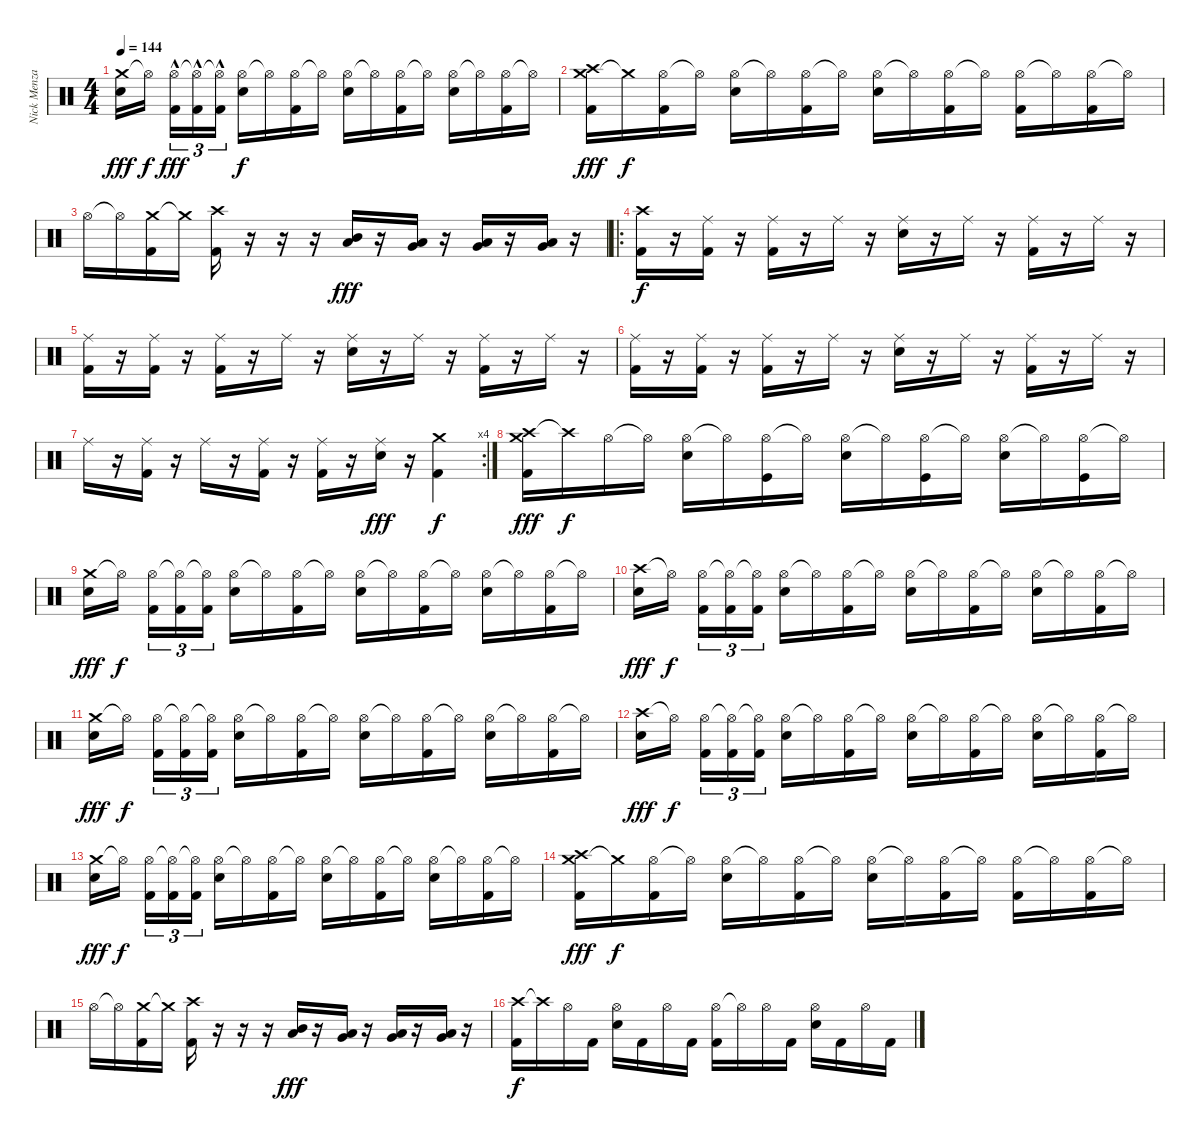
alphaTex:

\track ("Nick Menza" "Nick Menza") {instrument percussion}
\staff {score}
\articulation defaults
\ts (4 4)
\tempo 144
\clef neutral
\ks c
("Crash medium (hit)" "Electric Snare (hit)").16{dy fff} "Hi-Hat (open)"{t}.16{dy f beam splitsecondary} ("Hi-Hat (open)" "Kick (hit) 2"{hac}).16{tu (3 2) dy fff} ("Hi-Hat (open)"{t} "Kick (hit) 2"{hac}).16{tu (3 2)} ("Hi-Hat (open)"{t} "Kick (hit) 2"{hac}).16{tu (3 2)} ("Hi-Hat (open)" "Electric Snare (hit)").16{dy f} "Hi-Hat (open)"{t}.16 ("Hi-Hat (open)" "Kick (hit) 2").16 "Hi-Hat (open)"{t}.16 ("Hi-Hat (open)" "Electric Snare (hit)").16 "Hi-Hat (open)"{t}.16 ("Hi-Hat (open)" "Kick (hit) 2").16 "Hi-Hat (open)"{t}.16 ("Hi-Hat (open)" "Electric Snare (hit)").16 "Hi-Hat (open)"{t}.16 ("Hi-Hat (open)" "Kick (hit) 2").16 "Hi-Hat (open)"{t}.16 |
("Crash medium (hit)" "Crash high (hit)" "Kick (hit) 2").16{dy fff} "Crash medium (hit)"{t}.16{dy f} ("Hi-Hat (open)" "Kick (hit) 2").16 "Hi-Hat (open)"{t}.16 ("Hi-Hat (open)" "Electric Snare (hit)").16 "Hi-Hat (open)"{t}.16 ("Hi-Hat (open)" "Kick (hit) 2").16 "Hi-Hat (open)"{t}.16 ("Hi-Hat (open)" "Electric Snare (hit)").16 "Hi-Hat (open)"{t}.16 ("Hi-Hat (open)" "Kick (hit) 2").16 "Hi-Hat (open)"{t}.16 ("Hi-Hat (open)" "Kick (hit) 2").16 "Hi-Hat (open)"{t}.16 ("Hi-Hat (open)" "Kick (hit) 2").16 "Hi-Hat (open)"{t}.16 |
"Hi-Hat (open)".16 "Hi-Hat (open)"{t}.16 ("Crash medium (hit)" "Kick (hit) 2").16 "Crash medium (hit)"{t}.16 ("Crash high (hit)" "Kick (hit) 2").16 r.16 r.16 r.16 ("Mid Tom (hit)" "Low Tom (hit)").16{dy fff} r.16 ("Low Tom (hit)" "Very Low Tom (hit)").16 r.16 ("Low Tom (hit)" "Very Low Tom (hit)").16 r.16 ("Very Low Tom (hit)" "Low Floor Tom (hit)").16 r.16 |
\ro
("Crash high (hit)" "Kick (hit) 2").16{dy f} r.16 ("Ride (middle)" "Kick (hit) 2").16 r.16 ("Ride (middle)" "Kick (hit) 2").16 r.16 "Ride (middle)".16 r.16 ("Ride (middle)" "Electric Snare (hit)").16 r.16 "Ride (middle)".16 r.16 ("Ride (middle)" "Kick (hit) 2").16 r.16 "Ride (middle)".16 r.16 |
("Ride (middle)" "Kick (hit) 2").16 r.16 ("Ride (middle)" "Kick (hit) 2").16 r.16 ("Ride (middle)" "Kick (hit) 2").16 r.16 "Ride (middle)".16 r.16 ("Ride (middle)" "Electric Snare (hit)").16 r.16 "Ride (middle)".16 r.16 ("Ride (middle)" "Kick (hit) 2").16 r.16 "Ride (middle)".16 r.16 |
("Ride (middle)" "Kick (hit) 2").16 r.16 ("Ride (middle)" "Kick (hit) 2").16 r.16 ("Ride (middle)" "Kick (hit) 2").16 r.16 "Ride (middle)".16 r.16 ("Ride (middle)" "Electric Snare (hit)").16 r.16 "Ride (middle)".16 r.16 ("Ride (middle)" "Kick (hit) 2").16 r.16 "Ride (middle)".16 r.16 |
\rc 4 "Ride (middle)".16
r.16 ("Ride (middle)" "Kick (hit) 2").16 r.16 "Ride (middle)".16 r.16 ("Ride (middle)" "Kick (hit) 2").16 r.16 ("Ride (middle)" "Kick (hit) 2").16 r.16 ("Ride (middle)" "Electric Snare (hit)").16{dy fff} r.16 ("Crash medium (hit)" "Kick (hit) 2").4{dy f} |
("Crash high (hit)" "Crash medium (hit)" "Kick (hit) 2").16{dy fff} "Crash high (hit)"{t}.16{dy f} "Hi-Hat (open)".16 "Hi-Hat (open)"{t}.16 ("Hi-Hat (open)" "Electric Snare (hit)").16 "Hi-Hat (open)"{t}.16 ("Hi-Hat (open)" "Kick (hit)").16 "Hi-Hat (open)"{t}.16 ("Hi-Hat (open)" "Electric Snare (hit)").16 "Hi-Hat (open)"{t}.16 ("Hi-Hat (open)" "Kick (hit)").16 "Hi-Hat (open)"{t}.16 ("Hi-Hat (open)" "Electric Snare (hit)").16 "Hi-Hat (open)"{t}.16 ("Hi-Hat (open)" "Kick (hit)").16 "Hi-Hat (open)"{t}.16 |
("Crash medium (hit)" "Electric Snare (hit)").16{dy fff} "Hi-Hat (open)"{t}.16{dy f beam splitsecondary} ("Hi-Hat (open)" "Kick (hit) 2").16{tu (3 2)} ("Hi-Hat (open)"{t} "Kick (hit) 2").16{tu (3 2)} ("Hi-Hat (open)"{t} "Kick (hit) 2").16{tu (3 2)} ("Hi-Hat (open)" "Electric Snare (hit)").16 "Hi-Hat (open)"{t}.16 ("Hi-Hat (open)" "Kick (hit) 2").16 "Hi-Hat (open)"{t}.16 ("Hi-Hat (open)" "Electric Snare (hit)").16 "Hi-Hat (open)"{t}.16 ("Hi-Hat (open)" "Kick (hit) 2").16 "Hi-Hat (open)"{t}.16 ("Hi-Hat (open)" "Electric Snare (hit)").16 "Hi-Hat (open)"{t}.16 ("Hi-Hat (open)" "Kick (hit) 2").16 "Hi-Hat (open)"{t}.16 |
("Crash high (hit)" "Electric Snare (hit)").16{dy fff} "Hi-Hat (open)"{t}.16{dy f beam splitsecondary} ("Hi-Hat (open)" "Kick (hit) 2").16{tu (3 2)} ("Hi-Hat (open)"{t} "Kick (hit) 2").16{tu (3 2)} ("Hi-Hat (open)"{t} "Kick (hit) 2").16{tu (3 2)} ("Hi-Hat (open)" "Electric Snare (hit)").16 "Hi-Hat (open)"{t}.16 ("Hi-Hat (open)" "Kick (hit) 2").16 "Hi-Hat (open)"{t}.16 ("Hi-Hat (open)" "Electric Snare (hit)").16 "Hi-Hat (open)"{t}.16 ("Hi-Hat (open)" "Kick (hit) 2").16 "Hi-Hat (open)"{t}.16 ("Hi-Hat (open)" "Electric Snare (hit)").16 "Hi-Hat (open)"{t}.16 ("Hi-Hat (open)" "Kick (hit) 2").16 "Hi-Hat (open)"{t}.16 |
("Crash medium (hit)" "Electric Snare (hit)").16{dy fff} "Hi-Hat (open)"{t}.16{dy f beam splitsecondary} ("Hi-Hat (open)" "Kick (hit) 2").16{tu (3 2)} ("Hi-Hat (open)"{t} "Kick (hit) 2").16{tu (3 2)} ("Hi-Hat (open)"{t} "Kick (hit) 2").16{tu (3 2)} ("Hi-Hat (open)" "Electric Snare (hit)").16 "Hi-Hat (open)"{t}.16 ("Hi-Hat (open)" "Kick (hit) 2").16 "Hi-Hat (open)"{t}.16 ("Hi-Hat (open)" "Electric Snare (hit)").16 "Hi-Hat (open)"{t}.16 ("Hi-Hat (open)" "Kick (hit) 2").16 "Hi-Hat (open)"{t}.16 ("Hi-Hat (open)" "Electric Snare (hit)").16 "Hi-Hat (open)"{t}.16 ("Hi-Hat (open)" "Kick (hit) 2").16 "Hi-Hat (open)"{t}.16 |
("Crash high (hit)" "Electric Snare (hit)").16{dy fff} "Hi-Hat (open)"{t}.16{dy f beam splitsecondary} ("Hi-Hat (open)" "Kick (hit) 2").16{tu (3 2)} ("Hi-Hat (open)"{t} "Kick (hit) 2").16{tu (3 2)} ("Hi-Hat (open)"{t} "Kick (hit) 2").16{tu (3 2)} ("Hi-Hat (open)" "Electric Snare (hit)").16 "Hi-Hat (open)"{t}.16 ("Hi-Hat (open)" "Kick (hit) 2").16 "Hi-Hat (open)"{t}.16 ("Hi-Hat (open)" "Electric Snare (hit)").16 "Hi-Hat (open)"{t}.16 ("Hi-Hat (open)" "Kick (hit) 2").16 "Hi-Hat (open)"{t}.16 ("Hi-Hat (open)" "Electric Snare (hit)").16 "Hi-Hat (open)"{t}.16 ("Hi-Hat (open)" "Kick (hit) 2").16 "Hi-Hat (open)"{t}.16 |
("Crash medium (hit)" "Electric Snare (hit)").16{dy fff} "Hi-Hat (open)"{t}.16{dy f beam splitsecondary} ("Hi-Hat (open)" "Kick (hit) 2").16{tu (3 2)} ("Hi-Hat (open)"{t} "Kick (hit) 2").16{tu (3 2)} ("Hi-Hat (open)"{t} "Kick (hit) 2").16{tu (3 2)} ("Hi-Hat (open)" "Electric Snare (hit)").16 "Hi-Hat (open)"{t}.16 ("Hi-Hat (open)" "Kick (hit) 2").16 "Hi-Hat (open)"{t}.16 ("Hi-Hat (open)" "Electric Snare (hit)").16 "Hi-Hat (open)"{t}.16 ("Hi-Hat (open)" "Kick (hit) 2").16 "Hi-Hat (open)"{t}.16 ("Hi-Hat (open)" "Electric Snare (hit)").16 "Hi-Hat (open)"{t}.16 ("Hi-Hat (open)" "Kick (hit) 2").16 "Hi-Hat (open)"{t}.16 |
("Crash medium (hit)" "Crash high (hit)" "Kick (hit) 2").16{dy fff} "Crash medium (hit)"{t}.16{dy f} ("Hi-Hat (open)" "Kick (hit) 2").16 "Hi-Hat (open)"{t}.16 ("Hi-Hat (open)" "Electric Snare (hit)").16 "Hi-Hat (open)"{t}.16 ("Hi-Hat (open)" "Kick (hit) 2").16 "Hi-Hat (open)"{t}.16 ("Hi-Hat (open)" "Electric Snare (hit)").16 "Hi-Hat (open)"{t}.16 ("Hi-Hat (open)" "Kick (hit) 2").16 "Hi-Hat (open)"{t}.16 ("Hi-Hat (open)" "Kick (hit) 2").16 "Hi-Hat (open)"{t}.16 ("Hi-Hat (open)" "Kick (hit) 2").16 "Hi-Hat (open)"{t}.16 |
"Hi-Hat (open)".16 "Hi-Hat (open)"{t}.16 ("Crash medium (hit)" "Kick (hit) 2").16 "Crash medium (hit)"{t}.16 ("Crash high (hit)" "Kick (hit) 2").16 r.16 r.16 r.16 ("Mid Tom (hit)" "Low Tom (hit)").16{dy fff} r.16 ("Low Tom (hit)" "Very Low Tom (hit)").16 r.16 ("Low Tom (hit)" "Very Low Tom (hit)").16 r.16 ("Very Low Tom (hit)" "Low Floor Tom (hit)").16 r.16 |
("Crash high (hit)" "Kick (hit) 2").16{dy f} "Crash high (hit)"{t}.16 "Hi-Hat (open)".16 "Kick (hit) 2".16 ("Hi-Hat (open)" "Electric Snare (hit)").16 "Kick (hit) 2".16 "Hi-Hat (open)".16 "Kick (hit) 2".16 ("Hi-Hat (open)" "Kick (hit) 2").16 "Hi-Hat (open)"{t}.16 "Hi-Hat (open)".16 "Kick (hit) 2".16 ("Hi-Hat (open)" "Electric Snare (hit)").16 "Kick (hit) 2".16 "Hi-Hat (open)".16 "Kick (hit) 2".16
